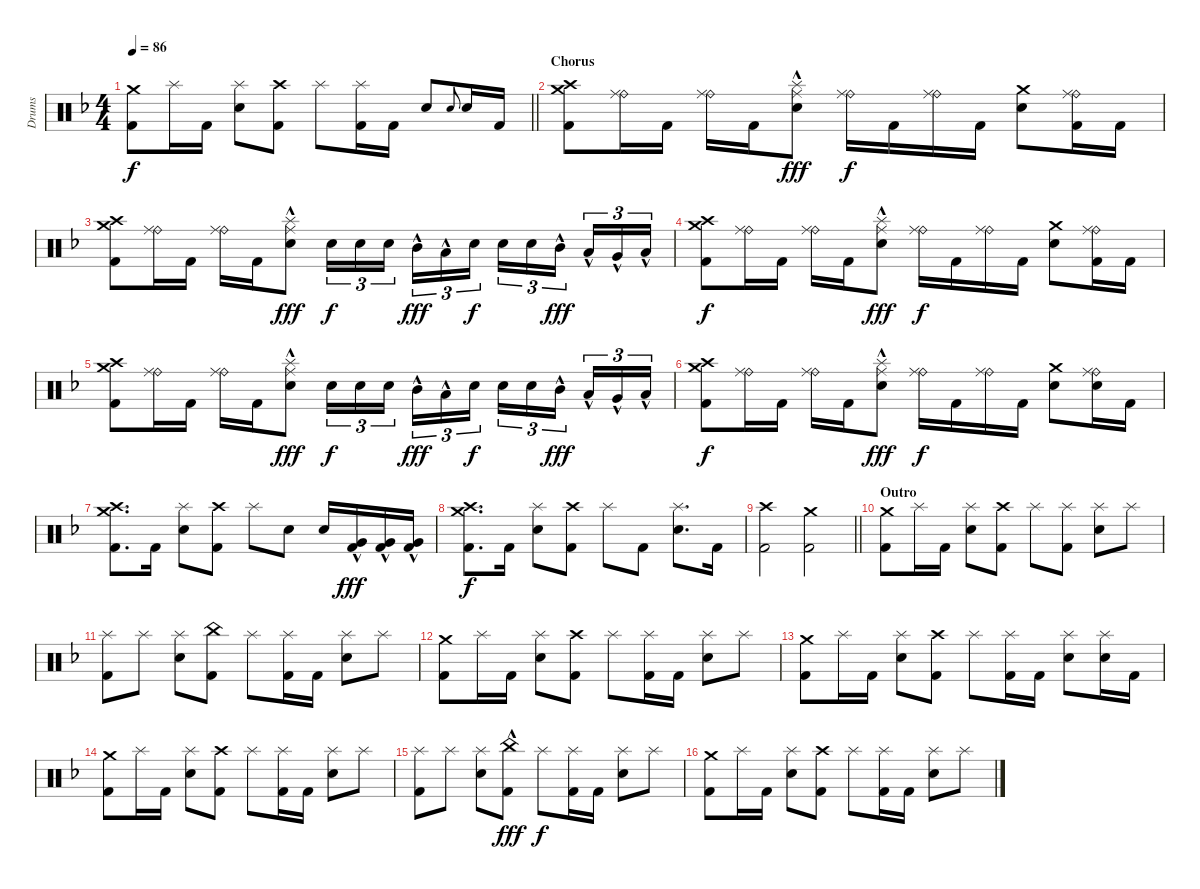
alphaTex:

\track ("Drums" "Drums") {instrument percussion}
\staff {score}
\articulation defaults
\ts (4 4)
\tempo 86
\clef neutral
\barLineRight lightlight
\ks dminor
("Crash medium (hit)" "Kick (hit) 2").8{dy f} "Splash (hit)".16 "Kick (hit) 2".16 ("Splash (hit)" "Snare (hit) 2").8 ("Crash high (hit)" "Kick (hit) 2").8 "Splash (hit)".8 ("Splash (hit)" "Kick (hit) 2").16 "Kick (hit) 2".16 "Snare (hit) 2".8 "Snare (hit) 2".8{gr onbeat} "Snare (hit) 2".16 "Kick (hit) 2".16 |
\section ("" "Chorus")
("Crash medium (hit)" "Crash high (hit)" "Kick (hit) 2").8 ("Ride (bell)" "Ride (middle)").16 "Kick (hit) 2".16 ("Ride (bell)" "Ride (middle)").16 "Kick (hit) 2".16 ("Splash (hit)"{hac} "Ride (middle)" "Snare (hit) 2").8{dy fff} ("Ride (bell)" "Ride (middle)").16{dy f} "Kick (hit) 2".16 ("Ride (bell)" "Ride (middle)").16 "Kick (hit) 2".16 ("Crash medium (hit)" "Snare (hit) 2").8 ("Ride (bell)" "Ride (middle)" "Kick (hit) 2").16 "Kick (hit) 2".16 |
("Crash medium (hit)" "Crash high (hit)" "Kick (hit) 2").8 ("Ride (bell)" "Ride (middle)").16 "Kick (hit) 2".16 ("Ride (bell)" "Ride (middle)").16 "Kick (hit) 2".16 ("Splash (hit)"{hac} "Ride (middle)" "Snare (hit) 2").8{dy fff} "Snare (hit) 2".16{tu (3 2) dy f} "Snare (hit) 2".16{tu (3 2)} "Snare (hit) 2".16{tu (3 2) beam splitsecondary} "Mid Tom (hit)"{hac}.16{tu (3 2) dy fff} "Low Tom (hit)"{hac}.16{tu (3 2)} "Snare (hit) 2".16{tu (3 2) dy f} "Snare (hit) 2".16{tu (3 2)} "Snare (hit) 2".16{tu (3 2)} "Mid Tom (hit)"{hac}.16{tu (3 2) dy fff beam splitsecondary} "Low Tom (hit)"{hac}.16{tu (3 2)} "Very Low Tom (hit)"{hac}.16{tu (3 2)} "Low Floor Tom (hit)"{hac}.16{tu (3 2)} |
("Crash medium (hit)" "Crash high (hit)" "Kick (hit) 2").8{dy f} ("Ride (bell)" "Ride (middle)").16 "Kick (hit) 2".16 ("Ride (bell)" "Ride (middle)").16 "Kick (hit) 2".16 ("Splash (hit)"{hac} "Ride (middle)" "Snare (hit) 2").8{dy fff} ("Ride (bell)" "Ride (middle)").16{dy f} "Kick (hit) 2".16 ("Ride (bell)" "Ride (middle)").16 "Kick (hit) 2".16 ("Crash medium (hit)" "Snare (hit) 2").8 ("Ride (bell)" "Ride (middle)" "Kick (hit) 2").16 "Kick (hit) 2".16 |
("Crash medium (hit)" "Crash high (hit)" "Kick (hit) 2").8 ("Ride (bell)" "Ride (middle)").16 "Kick (hit) 2".16 ("Ride (bell)" "Ride (middle)").16 "Kick (hit) 2".16 ("Splash (hit)"{hac} "Ride (middle)" "Snare (hit) 2").8{dy fff} "Snare (hit) 2".16{tu (3 2) dy f} "Snare (hit) 2".16{tu (3 2)} "Snare (hit) 2".16{tu (3 2) beam splitsecondary} "Mid Tom (hit)"{hac}.16{tu (3 2) dy fff} "Low Tom (hit)"{hac}.16{tu (3 2)} "Snare (hit) 2".16{tu (3 2) dy f} "Snare (hit) 2".16{tu (3 2)} "Snare (hit) 2".16{tu (3 2)} "Mid Tom (hit)"{hac}.16{tu (3 2) dy fff beam splitsecondary} "Low Tom (hit)"{hac}.16{tu (3 2)} "Very Low Tom (hit)"{hac}.16{tu (3 2)} "Low Floor Tom (hit)"{hac}.16{tu (3 2)} |
("Crash medium (hit)" "Crash high (hit)" "Kick (hit) 2").8{dy f} ("Ride (bell)" "Ride (middle)").16 "Kick (hit) 2".16 ("Ride (bell)" "Ride (middle)").16 "Kick (hit) 2".16 ("Splash (hit)"{hac} "Ride (middle)" "Snare (hit) 2").8{dy fff} ("Ride (bell)" "Ride (middle)").16{dy f} "Kick (hit) 2".16 ("Ride (bell)" "Ride (middle)").16 "Kick (hit) 2".16 ("Crash medium (hit)" "Snare (hit) 2").8 ("Ride (bell)" "Ride (middle)" "Snare (hit) 2").16 "Kick (hit) 2".16 |
("Crash medium (hit)" "Crash high (hit)" "Kick (hit) 2").8{d} "Kick (hit) 2".16 ("Splash (hit)" "Snare (hit) 2").8 ("Crash high (hit)" "Kick (hit) 2").8 "Splash (hit)".8 "Snare (hit) 2".8 "Snare (hit) 2".16 ("Very Low Tom (hit)"{hac} "Kick (hit) 2").16{dy fff} ("Very Low Tom (hit)"{hac} "Kick (hit) 2").16 ("Very Low Tom (hit)"{hac} "Kick (hit) 2").16 |
("Crash medium (hit)" "Crash high (hit)" "Kick (hit) 2").8{d dy f} "Kick (hit) 2".16 ("Splash (hit)" "Snare (hit) 2").8 ("Crash high (hit)" "Kick (hit) 2").8 "Splash (hit)".8 "Kick (hit) 2".8 ("Splash (hit)" "Snare (hit) 2").8{d} "Kick (hit) 2".16 |
\barLineRight lightlight
("Crash high (hit)" "Kick (hit) 2").2 ("Crash medium (hit)" "Kick (hit) 2").2 |
\section ("" "Outro")
("Crash medium (hit)" "Kick (hit) 2").8 "Splash (hit)".16 "Kick (hit) 2".16 ("Splash (hit)" "Snare (hit) 2").8 ("Crash high (hit)" "Kick (hit) 2").8 "Splash (hit)".8 ("Splash (hit)" "Kick (hit) 2").8 ("Splash (hit)" "Snare (hit) 2").8 "Splash (hit)".8 |
("Splash (hit)" "Kick (hit) 2").8 "Splash (hit)".8 ("Splash (hit)" "Snare (hit) 2").8 ("China (hit)" "Kick (hit) 2").8 "Splash (hit)".8 ("Splash (hit)" "Kick (hit) 2").16 "Kick (hit) 2".16 ("Splash (hit)" "Snare (hit) 2").8 "Splash (hit)".8 |
("Crash medium (hit)" "Kick (hit) 2").8 "Splash (hit)".16 "Kick (hit) 2".16 ("Splash (hit)" "Snare (hit) 2").8 ("Crash high (hit)" "Kick (hit) 2").8 "Splash (hit)".8 ("Splash (hit)" "Kick (hit) 2").16 "Kick (hit) 2".16 ("Splash (hit)" "Snare (hit) 2").8 "Splash (hit)".8 |
("Crash medium (hit)" "Kick (hit) 2").8 "Splash (hit)".16 "Kick (hit) 2".16 ("Splash (hit)" "Snare (hit) 2").8 ("Crash high (hit)" "Kick (hit) 2").8 "Splash (hit)".8 ("Splash (hit)" "Kick (hit) 2").16 "Kick (hit) 2".16 ("Splash (hit)" "Snare (hit) 2").8 ("Splash (hit)" "Snare (hit) 2").16 "Kick (hit) 2".16 |
("Crash medium (hit)" "Kick (hit) 2").8 "Splash (hit)".16 "Kick (hit) 2".16 ("Splash (hit)" "Snare (hit) 2").8 ("Crash high (hit)" "Kick (hit) 2").8 "Splash (hit)".8 ("Splash (hit)" "Kick (hit) 2").16 "Kick (hit) 2".16 ("Splash (hit)" "Snare (hit) 2").8 "Splash (hit)".8 |
("Splash (hit)" "Kick (hit) 2").8 "Splash (hit)".8 ("Splash (hit)" "Snare (hit) 2").8 ("China (hit)"{hac} "Kick (hit) 2").8{dy fff} "Splash (hit)".8{dy f} ("Splash (hit)" "Kick (hit) 2").16 "Kick (hit) 2".16 ("Splash (hit)" "Snare (hit) 2").8 "Splash (hit)".8 |
("Crash medium (hit)" "Kick (hit) 2").8 "Splash (hit)".16 "Kick (hit) 2".16 ("Splash (hit)" "Snare (hit) 2").8 ("Crash high (hit)" "Kick (hit) 2").8 "Splash (hit)".8 ("Splash (hit)" "Kick (hit) 2").16 "Kick (hit) 2".16 ("Splash (hit)" "Snare (hit) 2").8 "Splash (hit)".8
